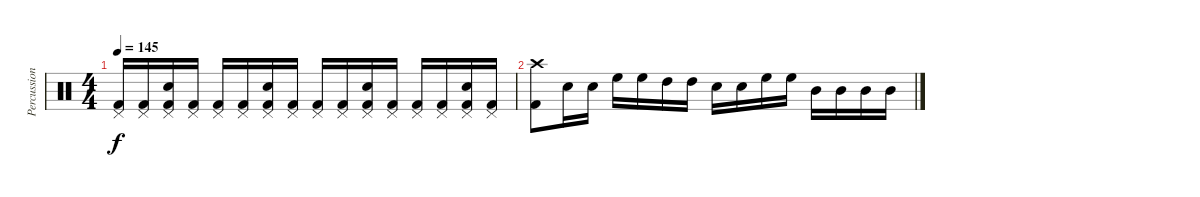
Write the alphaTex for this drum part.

\track ("Percussion" "Percussion") {instrument percussion}
\staff {score}
\articulation defaults
\ts (4 4)
\tempo 145
\clef neutral
\ks c
("Pedal Hi-Hat (hit)" "Kick (hit) 2").16{dy f} ("Pedal Hi-Hat (hit)" "Kick (hit) 2").16 ("Pedal Hi-Hat (hit)" "Snare (hit) 2" "Kick (hit) 2").16 ("Pedal Hi-Hat (hit)" "Kick (hit) 2").16 ("Pedal Hi-Hat (hit)" "Kick (hit) 2").16 ("Pedal Hi-Hat (hit)" "Kick (hit) 2").16 ("Pedal Hi-Hat (hit)" "Snare (hit) 2" "Kick (hit) 2").16 ("Pedal Hi-Hat (hit)" "Kick (hit) 2").16 ("Pedal Hi-Hat (hit)" "Kick (hit) 2").16 ("Pedal Hi-Hat (hit)" "Kick (hit) 2").16 ("Pedal Hi-Hat (hit)" "Snare (hit) 2" "Kick (hit) 2").16 ("Pedal Hi-Hat (hit)" "Kick (hit) 2").16 ("Pedal Hi-Hat (hit)" "Kick (hit) 2").16 ("Pedal Hi-Hat (hit)" "Kick (hit) 2").16 ("Pedal Hi-Hat (hit)" "Snare (hit) 2" "Kick (hit) 2").16 ("Pedal Hi-Hat (hit)" "Kick (hit) 2").16 |
("Crash high (hit)" "Kick (hit) 2").8 "Snare (hit) 2".16 "Snare (hit) 2".16 "High Floor Tom (hit)".16 "High Floor Tom (hit)".16 "High Tom (hit)".16 "High Tom (hit)".16 "Snare (hit) 2".16 "Snare (hit) 2".16 "High Floor Tom (hit)".16 "High Floor Tom (hit)".16 "Mid Tom (hit)".16 "Mid Tom (hit)".16 "Mid Tom (hit)".16 "Mid Tom (hit)".16
